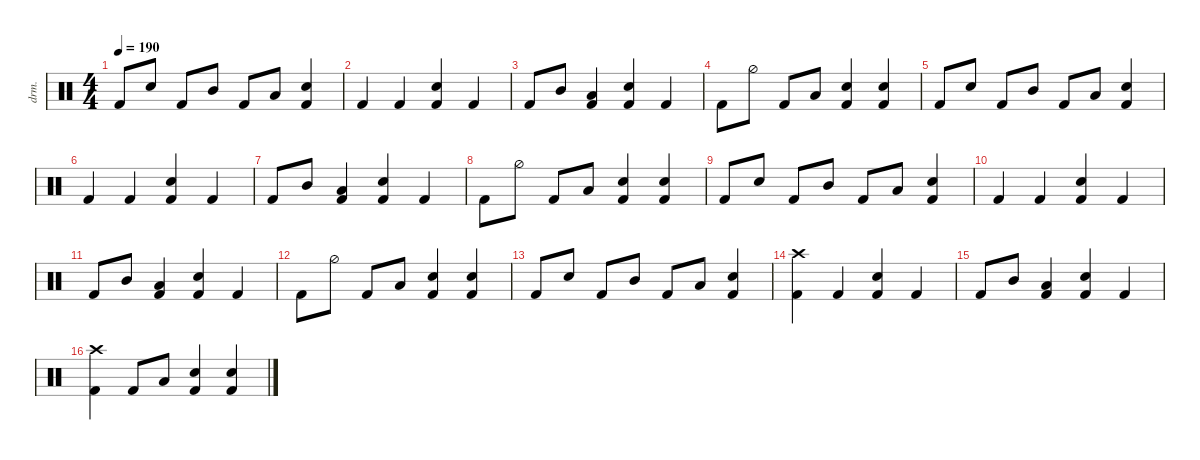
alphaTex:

\defaultSystemsLayout 4
\hideDynamics
\bracketExtendMode nobrackets
\track ("Drumkit" "drm.") {instrument percussion}
\staff {score}
\articulation defaults
\ts (4 4)
\tempo 190
\clef neutral
\ks c "Kick (hit) 2".8{dy mf} "Snare (hit) 2".8 "Kick (hit) 2".8 "Mid Tom (hit)".8 "Kick (hit) 2".8 "Low Tom (hit)".8
("Kick (hit) 2" "Snare (hit) 2").4 |
"Kick (hit) 2".4 "Kick (hit) 2".4 ("Kick (hit) 2" "Snare (hit) 2").4 "Kick (hit) 2".4 |
"Kick (hit) 2".8 "Mid Tom (hit)".8 ("Kick (hit) 2" "Low Tom (hit)").4 ("Kick (hit) 2" "Snare (hit) 2").4 "Kick (hit) 2".4 |
"Kick (hit) 2".8 "Hi-Hat (half)".8 "Kick (hit) 2".8 "Low Tom (hit)".8 ("Kick (hit) 2" "Snare (hit) 2").4 ("Kick (hit) 2" "Snare (hit) 2").4 |
"Kick (hit) 2".8 "Snare (hit) 2".8 "Kick (hit) 2".8 "Mid Tom (hit)".8 "Kick (hit) 2".8 "Low Tom (hit)".8 ("Kick (hit) 2" "Snare (hit) 2").4 |
"Kick (hit) 2".4 "Kick (hit) 2".4 ("Kick (hit) 2" "Snare (hit) 2").4 "Kick (hit) 2".4 |
"Kick (hit) 2".8 "Mid Tom (hit)".8 ("Kick (hit) 2" "Low Tom (hit)").4 ("Kick (hit) 2" "Snare (hit) 2").4 "Kick (hit) 2".4 |
"Kick (hit) 2".8 "Hi-Hat (half)".8 "Kick (hit) 2".8 "Low Tom (hit)".8 ("Kick (hit) 2" "Snare (hit) 2").4 ("Kick (hit) 2" "Snare (hit) 2").4 |
"Kick (hit) 2".8 "Snare (hit) 2".8 "Kick (hit) 2".8 "Mid Tom (hit)".8 "Kick (hit) 2".8 "Low Tom (hit)".8 ("Kick (hit) 2" "Snare (hit) 2").4 |
"Kick (hit) 2".4 "Kick (hit) 2".4 ("Kick (hit) 2" "Snare (hit) 2").4 "Kick (hit) 2".4 |
"Kick (hit) 2".8 "Mid Tom (hit)".8 ("Kick (hit) 2" "Low Tom (hit)").4 ("Kick (hit) 2" "Snare (hit) 2").4 "Kick (hit) 2".4 |
"Kick (hit) 2".8 "Hi-Hat (half)".8 "Kick (hit) 2".8 "Low Tom (hit)".8 ("Kick (hit) 2" "Snare (hit) 2").4 ("Kick (hit) 2" "Snare (hit) 2").4 |
"Kick (hit) 2".8 "Snare (hit) 2".8 "Kick (hit) 2".8 "Mid Tom (hit)".8 "Kick (hit) 2".8 "Low Tom (hit)".8 ("Kick (hit) 2" "Snare (hit) 2").4 |
("Kick (hit) 2" "Crash high (hit)").4 "Kick (hit) 2".4 ("Kick (hit) 2" "Snare (hit) 2").4 "Kick (hit) 2".4 |
"Kick (hit) 2".8 "Mid Tom (hit)".8 ("Kick (hit) 2" "Low Tom (hit)").4 ("Kick (hit) 2" "Snare (hit) 2").4 "Kick (hit) 2".4 |
("Kick (hit) 2" "Crash high (hit)").4 "Kick (hit) 2".8 "Low Tom (hit)".8 ("Kick (hit) 2" "Snare (hit) 2").4 ("Kick (hit) 2" "Snare (hit) 2").4
